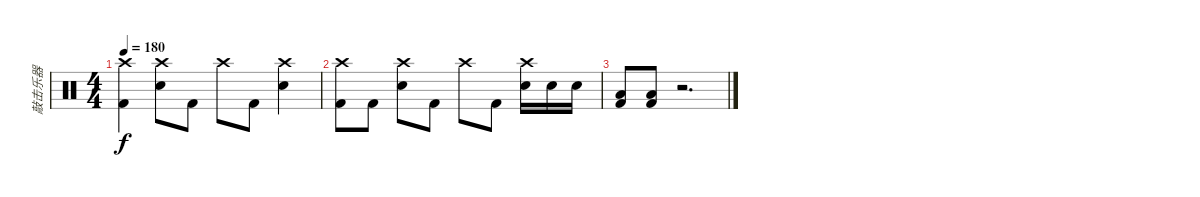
\track ("敲击乐器" "敲击乐器") {instrument percussion}
\staff {score}
\articulation defaults
\ts (4 4)
\tempo 180
\clef neutral
\ks c
("Crash high (hit)" "Kick (hit) 2").4{dy f} ("Crash high (hit)" "Electric Snare (hit)").8 "Kick (hit) 2".8 "Crash high (hit)".8 "Kick (hit) 2".8 ("Crash high (hit)" "Electric Snare (hit)").4 |
("Crash high (hit)" "Kick (hit) 2").8 "Kick (hit) 2".8 ("Crash high (hit)" "Electric Snare (hit)").8 "Kick (hit) 2".8 "Crash high (hit)".8 "Kick (hit) 2".8 ("Crash high (hit)" "Electric Snare (hit)").16 "Electric Snare (hit)".16 "Electric Snare (hit)".16 |
("Kick (hit) 2" "Low Tom (hit)").8 ("Kick (hit) 2" "Low Floor Tom (hit)").8 r.2{d}
